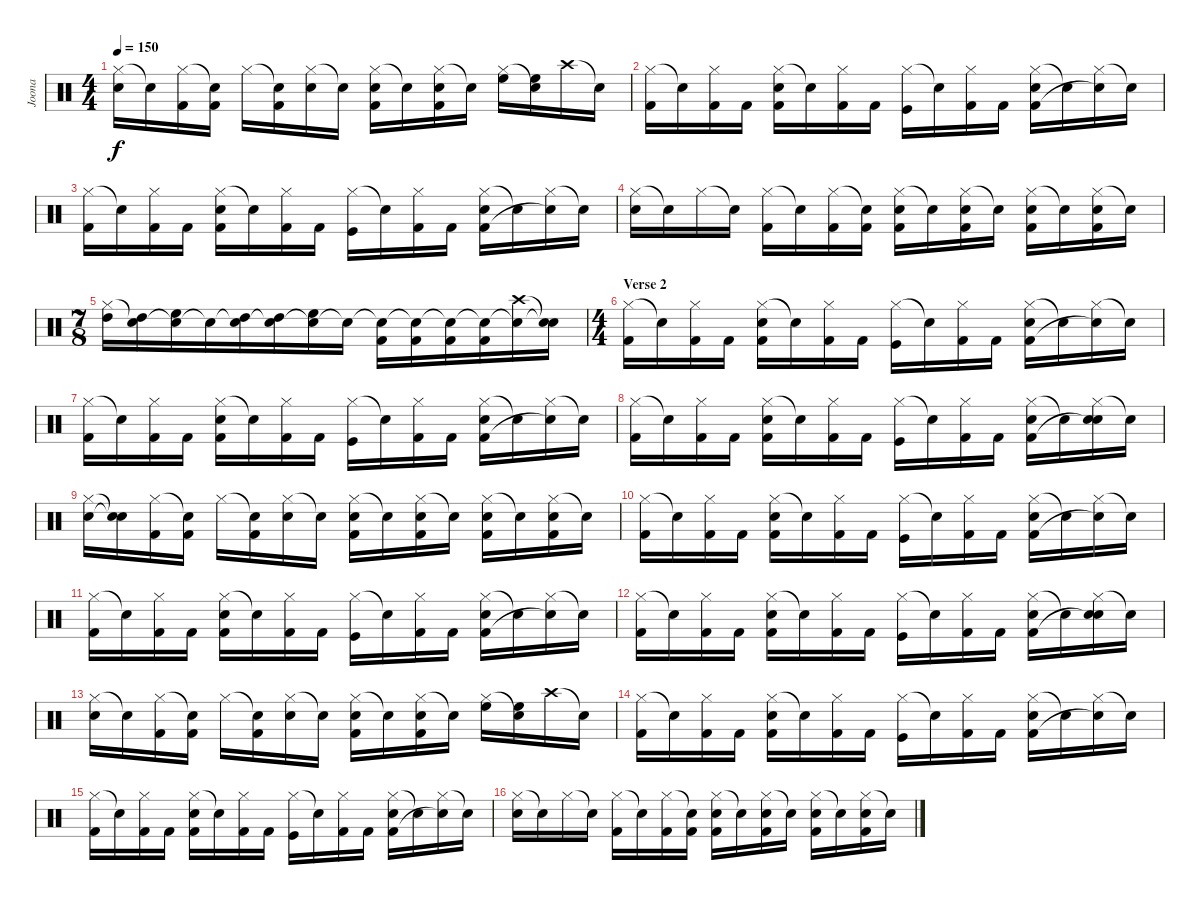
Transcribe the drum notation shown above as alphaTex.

\track ("Joona" "Joona") {instrument percussion}
\staff {score}
\articulation defaults
\ts (4 4)
\tempo 150
\clef neutral
\ks c
("Hi-Hat (closed)" "Snare (hit) 2").16{dy f} "Snare (hit)"{t}.16 ("Hi-Hat (closed)" "Kick (hit) 2").16 ("Snare (hit)"{t} "Kick (hit) 2").16 "Hi-Hat (closed)".16 ("Snare (hit)"{t} "Kick (hit) 2").16 ("Hi-Hat (closed)" "Snare (hit) 2").16 "Snare (hit)"{t}.16 ("Hi-Hat (closed)" "Kick (hit) 2" "Snare (hit) 2").16 "Snare (hit)"{t}.16 ("Hi-Hat (closed)" "Kick (hit) 2" "Snare (hit) 2").16 "Snare (hit)"{t}.16 ("Hi-Hat (closed)" "High Floor Tom (hit)").16 ("Snare (hit)"{t} "High Floor Tom (hit)").16 "Crash high (hit)".16 "Snare (hit)"{t}.16 |
("Hi-Hat (closed)" "Kick (hit) 2").16 "Snare (hit)"{t}.16 ("Hi-Hat (closed)" "Kick (hit) 2").16 "Kick (hit) 2".16 ("Hi-Hat (closed)" "Kick (hit) 2" "Snare (hit) 2").16 "Snare (hit)"{t}.16 ("Hi-Hat (closed)" "Kick (hit) 2").16 "Kick (hit) 2".16 ("Hi-Hat (closed)" "Kick (hit)").16 "Snare (hit)"{t}.16 ("Hi-Hat (closed)" "Kick (hit) 2").16 "Kick (hit) 2".16 ("Hi-Hat (closed)" "Kick (hit) 2" "Snare (hit) 2").16 "Snare (hit)"{t}.16 ("Hi-Hat (closed)" "Snare (hit)"{t}).16 "Snare (hit)"{t}.16 |
("Hi-Hat (closed)" "Kick (hit) 2").16 "Snare (hit)"{t}.16 ("Hi-Hat (closed)" "Kick (hit) 2").16 "Kick (hit) 2".16 ("Hi-Hat (closed)" "Kick (hit) 2" "Snare (hit) 2").16 "Snare (hit)"{t}.16 ("Hi-Hat (closed)" "Kick (hit) 2").16 "Kick (hit) 2".16 ("Hi-Hat (closed)" "Kick (hit)").16 "Snare (hit)"{t}.16 ("Hi-Hat (closed)" "Kick (hit) 2").16 "Kick (hit) 2".16 ("Hi-Hat (closed)" "Kick (hit) 2" "Snare (hit) 2").16 "Snare (hit)"{t}.16 ("Hi-Hat (closed)" "Snare (hit)"{t}).16 "Snare (hit)"{t}.16 |
("Hi-Hat (closed)" "Snare (hit) 2").16 "Snare (hit)"{t}.16 "Hi-Hat (closed)".16 "Snare (hit)"{t}.16 ("Hi-Hat (closed)" "Kick (hit) 2").16 "Snare (hit)"{t}.16 ("Hi-Hat (closed)" "Kick (hit) 2").16 ("Snare (hit)"{t} "Kick (hit) 2").16 ("Hi-Hat (closed)" "Kick (hit) 2" "Snare (hit) 2").16 "Snare (hit)"{t}.16 ("Hi-Hat (closed)" "Kick (hit) 2" "Snare (hit) 2").16 "Snare (hit)"{t}.16 ("Hi-Hat (closed)" "Kick (hit) 2" "Snare (hit) 2").16 "Snare (hit)"{t}.16 ("Hi-Hat (closed)" "Kick (hit) 2" "Snare (hit) 2").16 "Snare (hit)"{t}.16 |
\ts (7 8)
("Hi-Hat (closed)" "High Tom (hit)").16 ("Snare (hit)"{t} "High Tom (hit)").16 ("Snare (hit)"{t} "High Floor Tom (hit)").16 "Snare (hit)"{t}.16 ("Snare (hit)"{t} "High Tom (hit)").16 ("Snare (hit)"{t} "High Tom (hit)").16 ("Snare (hit)"{t} "High Floor Tom (hit)").16 "Snare (hit)"{t}.16 ("Snare (hit)"{t} "Kick (hit) 2").16 ("Snare (hit)"{t} "Kick (hit) 2").16 ("Snare (hit)"{t} "Kick (hit) 2").16 ("Snare (hit)"{t} "Kick (hit) 2").16 ("Snare (hit)"{t} "Crash high (hit)").16 ("Snare (hit)"{t} "Snare (hit)"{t}).16 |
\ts (4 4)
\section ("" "Verse 2")
("Hi-Hat (closed)" "Kick (hit) 2").16 "Snare (hit)"{t}.16 ("Hi-Hat (closed)" "Kick (hit) 2").16 "Kick (hit) 2".16 ("Hi-Hat (closed)" "Kick (hit) 2" "Snare (hit) 2").16 "Snare (hit)"{t}.16 ("Hi-Hat (closed)" "Kick (hit) 2").16 "Kick (hit) 2".16 ("Hi-Hat (closed)" "Kick (hit)").16 "Snare (hit)"{t}.16 ("Hi-Hat (closed)" "Kick (hit) 2").16 "Kick (hit) 2".16 ("Hi-Hat (closed)" "Kick (hit) 2" "Snare (hit) 2").16 "Snare (hit)"{t}.16 ("Hi-Hat (closed)" "Snare (hit)"{t}).16 "Snare (hit)"{t}.16 |
("Hi-Hat (closed)" "Kick (hit) 2").16 "Snare (hit)"{t}.16 ("Hi-Hat (closed)" "Kick (hit) 2").16 "Kick (hit) 2".16 ("Hi-Hat (closed)" "Kick (hit) 2" "Snare (hit) 2").16 "Snare (hit)"{t}.16 ("Hi-Hat (closed)" "Kick (hit) 2").16 "Kick (hit) 2".16 ("Hi-Hat (closed)" "Kick (hit)").16 "Snare (hit)"{t}.16 ("Hi-Hat (closed)" "Kick (hit) 2").16 "Kick (hit) 2".16 ("Hi-Hat (closed)" "Kick (hit) 2" "Snare (hit) 2").16 "Snare (hit)"{t}.16 ("Hi-Hat (closed)" "Snare (hit)"{t}).16 "Snare (hit)"{t}.16 |
("Hi-Hat (closed)" "Kick (hit) 2").16 "Snare (hit)"{t}.16 ("Hi-Hat (closed)" "Kick (hit) 2").16 "Kick (hit) 2".16 ("Hi-Hat (closed)" "Kick (hit) 2" "Snare (hit) 2").16 "Snare (hit)"{t}.16 ("Hi-Hat (closed)" "Kick (hit) 2").16 "Kick (hit) 2".16 ("Hi-Hat (closed)" "Kick (hit)").16 "Snare (hit)"{t}.16 ("Hi-Hat (closed)" "Kick (hit) 2").16 "Kick (hit) 2".16 ("Hi-Hat (closed)" "Kick (hit) 2" "Snare (hit) 2").16 "Snare (hit)"{t}.16 ("Hi-Hat (closed)" "Snare (hit)"{t} "Snare (hit) 2").16 "Snare (hit)"{t}.16 |
("Hi-Hat (closed)" "Snare (hit) 2").16 ("Snare (hit)"{t} "Snare (hit)"{t}).16 ("Hi-Hat (closed)" "Kick (hit) 2").16 ("Snare (hit)"{t} "Kick (hit) 2").16 "Hi-Hat (closed)".16 ("Snare (hit)"{t} "Kick (hit) 2").16 ("Hi-Hat (closed)" "Snare (hit) 2").16 "Snare (hit)"{t}.16 ("Hi-Hat (closed)" "Kick (hit) 2" "Snare (hit) 2").16 "Snare (hit)"{t}.16 ("Hi-Hat (closed)" "Kick (hit) 2" "Snare (hit) 2").16 "Snare (hit)"{t}.16 ("Hi-Hat (closed)" "Kick (hit) 2" "Snare (hit) 2").16 "Snare (hit)"{t}.16 ("Hi-Hat (closed)" "Kick (hit) 2" "Snare (hit) 2").16 "Snare (hit)"{t}.16 |
("Hi-Hat (closed)" "Kick (hit) 2").16 "Snare (hit)"{t}.16 ("Hi-Hat (closed)" "Kick (hit) 2").16 "Kick (hit) 2".16 ("Hi-Hat (closed)" "Kick (hit) 2" "Snare (hit) 2").16 "Snare (hit)"{t}.16 ("Hi-Hat (closed)" "Kick (hit) 2").16 "Kick (hit) 2".16 ("Hi-Hat (closed)" "Kick (hit)").16 "Snare (hit)"{t}.16 ("Hi-Hat (closed)" "Kick (hit) 2").16 "Kick (hit) 2".16 ("Hi-Hat (closed)" "Kick (hit) 2" "Snare (hit) 2").16 "Snare (hit)"{t}.16 ("Hi-Hat (closed)" "Snare (hit)"{t}).16 "Snare (hit)"{t}.16 |
("Hi-Hat (closed)" "Kick (hit) 2").16 "Snare (hit)"{t}.16 ("Hi-Hat (closed)" "Kick (hit) 2").16 "Kick (hit) 2".16 ("Hi-Hat (closed)" "Kick (hit) 2" "Snare (hit) 2").16 "Snare (hit)"{t}.16 ("Hi-Hat (closed)" "Kick (hit) 2").16 "Kick (hit) 2".16 ("Hi-Hat (closed)" "Kick (hit)").16 "Snare (hit)"{t}.16 ("Hi-Hat (closed)" "Kick (hit) 2").16 "Kick (hit) 2".16 ("Hi-Hat (closed)" "Kick (hit) 2" "Snare (hit) 2").16 "Snare (hit)"{t}.16 ("Hi-Hat (closed)" "Snare (hit)"{t}).16 "Snare (hit)"{t}.16 |
("Hi-Hat (closed)" "Kick (hit) 2").16 "Snare (hit)"{t}.16 ("Hi-Hat (closed)" "Kick (hit) 2").16 "Kick (hit) 2".16 ("Hi-Hat (closed)" "Kick (hit) 2" "Snare (hit) 2").16 "Snare (hit)"{t}.16 ("Hi-Hat (closed)" "Kick (hit) 2").16 "Kick (hit) 2".16 ("Hi-Hat (closed)" "Kick (hit)").16 "Snare (hit)"{t}.16 ("Hi-Hat (closed)" "Kick (hit) 2").16 "Kick (hit) 2".16 ("Hi-Hat (closed)" "Kick (hit) 2" "Snare (hit) 2").16 "Snare (hit)"{t}.16 ("Hi-Hat (closed)" "Snare (hit)"{t} "Snare (hit) 2").16 "Snare (hit)"{t}.16 |
("Hi-Hat (closed)" "Snare (hit) 2").16 "Snare (hit)"{t}.16 ("Hi-Hat (closed)" "Kick (hit) 2").16 ("Snare (hit)"{t} "Kick (hit) 2").16 "Hi-Hat (closed)".16 ("Snare (hit)"{t} "Kick (hit) 2").16 ("Hi-Hat (closed)" "Snare (hit) 2").16 "Snare (hit)"{t}.16 ("Hi-Hat (closed)" "Kick (hit) 2" "Snare (hit) 2").16 "Snare (hit)"{t}.16 ("Hi-Hat (closed)" "Kick (hit) 2" "Snare (hit) 2").16 "Snare (hit)"{t}.16 ("Hi-Hat (closed)" "High Floor Tom (hit)").16 ("Snare (hit)"{t} "High Floor Tom (hit)").16 "Crash high (hit)".16 "Snare (hit)"{t}.16 |
("Hi-Hat (closed)" "Kick (hit) 2").16 "Snare (hit)"{t}.16 ("Hi-Hat (closed)" "Kick (hit) 2").16 "Kick (hit) 2".16 ("Hi-Hat (closed)" "Kick (hit) 2" "Snare (hit) 2").16 "Snare (hit)"{t}.16 ("Hi-Hat (closed)" "Kick (hit) 2").16 "Kick (hit) 2".16 ("Hi-Hat (closed)" "Kick (hit)").16 "Snare (hit)"{t}.16 ("Hi-Hat (closed)" "Kick (hit) 2").16 "Kick (hit) 2".16 ("Hi-Hat (closed)" "Kick (hit) 2" "Snare (hit) 2").16 "Snare (hit)"{t}.16 ("Hi-Hat (closed)" "Snare (hit)"{t}).16 "Snare (hit)"{t}.16 |
("Hi-Hat (closed)" "Kick (hit) 2").16 "Snare (hit)"{t}.16 ("Hi-Hat (closed)" "Kick (hit) 2").16 "Kick (hit) 2".16 ("Hi-Hat (closed)" "Kick (hit) 2" "Snare (hit) 2").16 "Snare (hit)"{t}.16 ("Hi-Hat (closed)" "Kick (hit) 2").16 "Kick (hit) 2".16 ("Hi-Hat (closed)" "Kick (hit)").16 "Snare (hit)"{t}.16 ("Hi-Hat (closed)" "Kick (hit) 2").16 "Kick (hit) 2".16 ("Hi-Hat (closed)" "Kick (hit) 2" "Snare (hit) 2").16 "Snare (hit)"{t}.16 ("Hi-Hat (closed)" "Snare (hit)"{t}).16 "Snare (hit)"{t}.16 |
("Hi-Hat (closed)" "Snare (hit) 2").16 "Snare (hit)"{t}.16 "Hi-Hat (closed)".16 "Snare (hit)"{t}.16 ("Hi-Hat (closed)" "Kick (hit) 2").16 "Snare (hit)"{t}.16 ("Hi-Hat (closed)" "Kick (hit) 2").16 ("Snare (hit)"{t} "Kick (hit) 2").16 ("Hi-Hat (closed)" "Kick (hit) 2" "Snare (hit) 2").16 "Snare (hit)"{t}.16 ("Hi-Hat (closed)" "Kick (hit) 2" "Snare (hit) 2").16 "Snare (hit)"{t}.16 ("Hi-Hat (closed)" "Kick (hit) 2" "Snare (hit) 2").16 "Snare (hit)"{t}.16 ("Hi-Hat (closed)" "Kick (hit) 2" "Snare (hit) 2").16 "Snare (hit)"{t}.16
